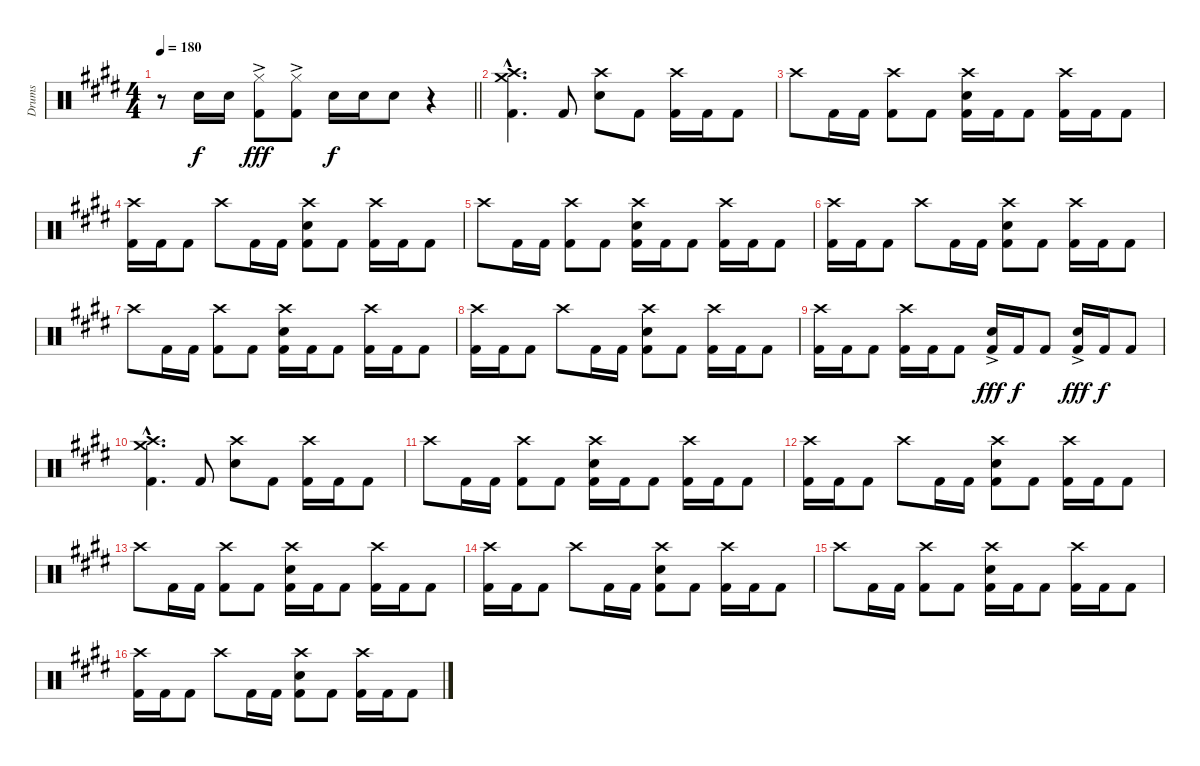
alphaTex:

\track ("Drums" "Drums") {instrument percussion}
\staff {score}
\articulation defaults
\ts (4 4)
\tempo 180
\clef neutral
\barLineRight lightlight
\ks c#minor
r.8{dy fff} "Snare (hit) 2".16{dy f} "Snare (hit) 2".16 ("Hi-Hat (closed)"{ac} "Kick (hit) 2").8{dy fff} ("Hi-Hat (closed)"{ac} "Kick (hit) 2").8 "Snare (hit) 2".16{dy f} "Snare (hit) 2".16 "Snare (hit) 2".8 r.4 |
("Crash high (hit)"{hac} "Crash medium (hit)"{hac} "Kick (hit) 2"{hac}).4{d} "Kick (hit) 2".8 ("Crash high (hit)" "Snare (hit) 2").8 "Kick (hit) 2".8 ("Crash high (hit)" "Kick (hit) 2").16 "Kick (hit) 2".16 "Kick (hit) 2".8 |
"Crash high (hit)".8 "Kick (hit) 2".16 "Kick (hit) 2".16 ("Crash high (hit)" "Kick (hit) 2").8 "Kick (hit) 2".8 ("Crash high (hit)" "Snare (hit) 2" "Kick (hit) 2").16 "Kick (hit) 2".16 "Kick (hit) 2".8 ("Crash high (hit)" "Kick (hit) 2").16 "Kick (hit) 2".16 "Kick (hit) 2".8 |
("Crash high (hit)" "Kick (hit) 2").16 "Kick (hit) 2".16 "Kick (hit) 2".8 "Crash high (hit)".8 "Kick (hit) 2".16 "Kick (hit) 2".16 ("Crash high (hit)" "Snare (hit) 2" "Kick (hit) 2").8 "Kick (hit) 2".8 ("Crash high (hit)" "Kick (hit) 2").16 "Kick (hit) 2".16 "Kick (hit) 2".8 |
"Crash high (hit)".8 "Kick (hit) 2".16 "Kick (hit) 2".16 ("Crash high (hit)" "Kick (hit) 2").8 "Kick (hit) 2".8 ("Crash high (hit)" "Snare (hit) 2" "Kick (hit) 2").16 "Kick (hit) 2".16 "Kick (hit) 2".8 ("Crash high (hit)" "Kick (hit) 2").16 "Kick (hit) 2".16 "Kick (hit) 2".8 |
("Crash high (hit)" "Kick (hit) 2").16 "Kick (hit) 2".16 "Kick (hit) 2".8 "Crash high (hit)".8 "Kick (hit) 2".16 "Kick (hit) 2".16 ("Crash high (hit)" "Snare (hit) 2" "Kick (hit) 2").8 "Kick (hit) 2".8 ("Crash high (hit)" "Kick (hit) 2").16 "Kick (hit) 2".16 "Kick (hit) 2".8 |
"Crash high (hit)".8 "Kick (hit) 2".16 "Kick (hit) 2".16 ("Crash high (hit)" "Kick (hit) 2").8 "Kick (hit) 2".8 ("Crash high (hit)" "Snare (hit) 2" "Kick (hit) 2").16 "Kick (hit) 2".16 "Kick (hit) 2".8 ("Crash high (hit)" "Kick (hit) 2").16 "Kick (hit) 2".16 "Kick (hit) 2".8 |
("Crash high (hit)" "Kick (hit) 2").16 "Kick (hit) 2".16 "Kick (hit) 2".8 "Crash high (hit)".8 "Kick (hit) 2".16 "Kick (hit) 2".16 ("Crash high (hit)" "Snare (hit) 2" "Kick (hit) 2").8 "Kick (hit) 2".8 ("Crash high (hit)" "Kick (hit) 2").16 "Kick (hit) 2".16 "Kick (hit) 2".8 |
("Crash high (hit)" "Kick (hit) 2").16 "Kick (hit) 2".16 "Kick (hit) 2".8 ("Crash high (hit)" "Kick (hit) 2").16 "Kick (hit) 2".16 "Kick (hit) 2".8 ("Snare (hit) 2"{ac} "Kick (hit) 2").16{dy fff} "Kick (hit) 2".16{dy f} "Kick (hit) 2".8 ("Snare (hit) 2"{ac} "Kick (hit) 2").16{dy fff} "Kick (hit) 2".16{dy f} "Kick (hit) 2".8 |
("Crash high (hit)"{hac} "Crash medium (hit)"{hac} "Kick (hit) 2"{hac}).4{d} "Kick (hit) 2".8 ("Crash high (hit)" "Snare (hit) 2").8 "Kick (hit) 2".8 ("Crash high (hit)" "Kick (hit) 2").16 "Kick (hit) 2".16 "Kick (hit) 2".8 |
"Crash high (hit)".8 "Kick (hit) 2".16 "Kick (hit) 2".16 ("Crash high (hit)" "Kick (hit) 2").8 "Kick (hit) 2".8 ("Crash high (hit)" "Snare (hit) 2" "Kick (hit) 2").16 "Kick (hit) 2".16 "Kick (hit) 2".8 ("Crash high (hit)" "Kick (hit) 2").16 "Kick (hit) 2".16 "Kick (hit) 2".8 |
("Crash high (hit)" "Kick (hit) 2").16 "Kick (hit) 2".16 "Kick (hit) 2".8 "Crash high (hit)".8 "Kick (hit) 2".16 "Kick (hit) 2".16 ("Crash high (hit)" "Snare (hit) 2" "Kick (hit) 2").8 "Kick (hit) 2".8 ("Crash high (hit)" "Kick (hit) 2").16 "Kick (hit) 2".16 "Kick (hit) 2".8 |
"Crash high (hit)".8 "Kick (hit) 2".16 "Kick (hit) 2".16 ("Crash high (hit)" "Kick (hit) 2").8 "Kick (hit) 2".8 ("Crash high (hit)" "Snare (hit) 2" "Kick (hit) 2").16 "Kick (hit) 2".16 "Kick (hit) 2".8 ("Crash high (hit)" "Kick (hit) 2").16 "Kick (hit) 2".16 "Kick (hit) 2".8 |
("Crash high (hit)" "Kick (hit) 2").16 "Kick (hit) 2".16 "Kick (hit) 2".8 "Crash high (hit)".8 "Kick (hit) 2".16 "Kick (hit) 2".16 ("Crash high (hit)" "Snare (hit) 2" "Kick (hit) 2").8 "Kick (hit) 2".8 ("Crash high (hit)" "Kick (hit) 2").16 "Kick (hit) 2".16 "Kick (hit) 2".8 |
"Crash high (hit)".8 "Kick (hit) 2".16 "Kick (hit) 2".16 ("Crash high (hit)" "Kick (hit) 2").8 "Kick (hit) 2".8 ("Crash high (hit)" "Snare (hit) 2" "Kick (hit) 2").16 "Kick (hit) 2".16 "Kick (hit) 2".8 ("Crash high (hit)" "Kick (hit) 2").16 "Kick (hit) 2".16 "Kick (hit) 2".8 |
("Crash high (hit)" "Kick (hit) 2").16 "Kick (hit) 2".16 "Kick (hit) 2".8 "Crash high (hit)".8 "Kick (hit) 2".16 "Kick (hit) 2".16 ("Crash high (hit)" "Snare (hit) 2" "Kick (hit) 2").8 "Kick (hit) 2".8 ("Crash high (hit)" "Kick (hit) 2").16 "Kick (hit) 2".16 "Kick (hit) 2".8
